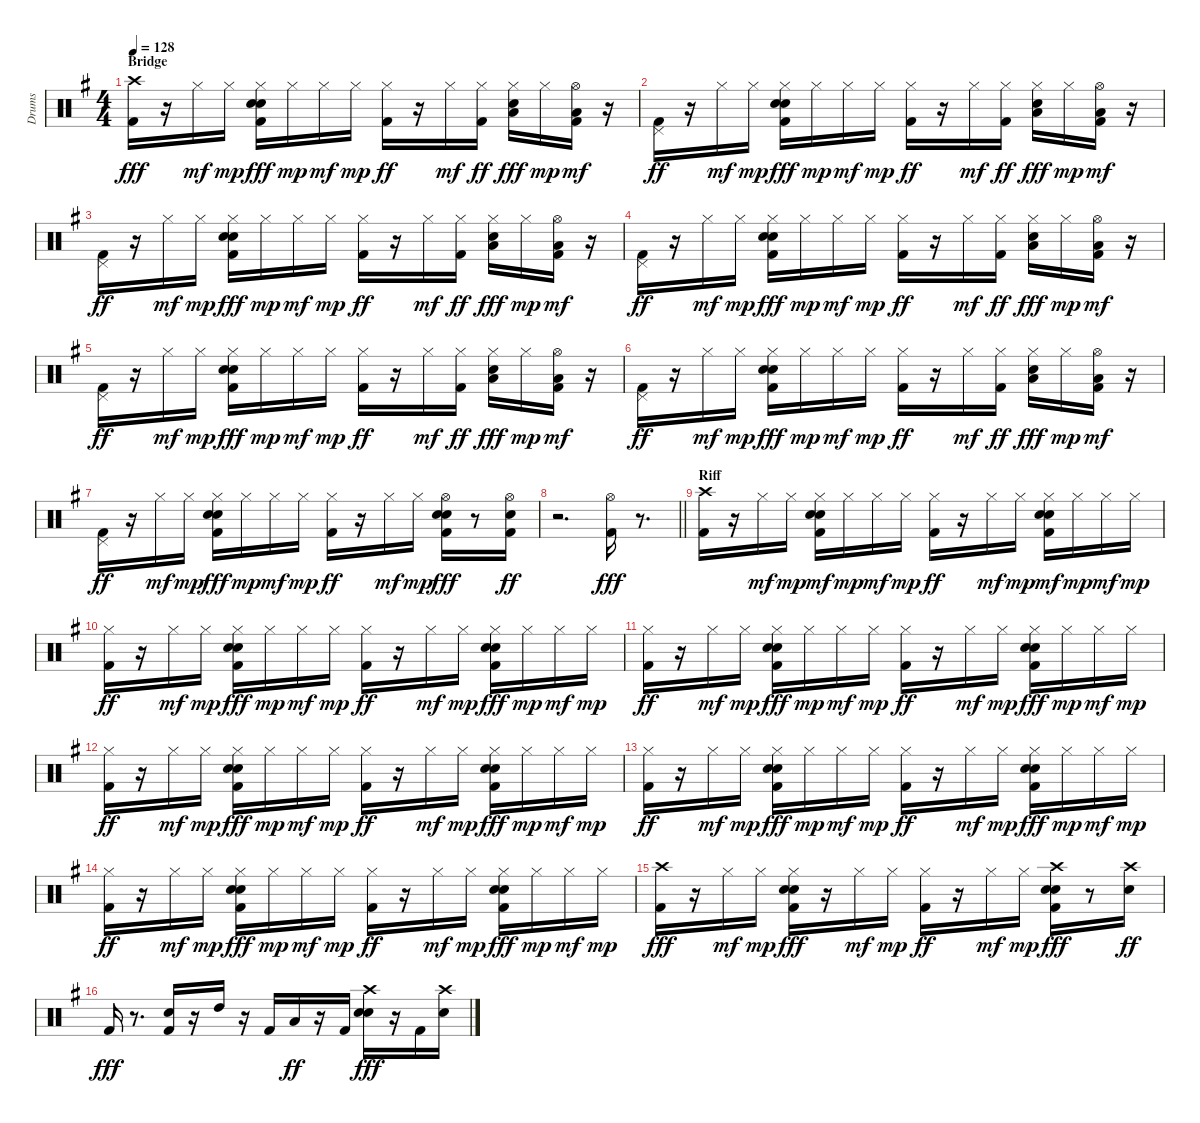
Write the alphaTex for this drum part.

\track ("Drums" "Drums") {instrument percussion}
\staff {score}
\articulation defaults
\ts (4 4)
\section ("" "Bridge")
\tempo 128
\clef neutral
\ks eminor
("Kick (hit) 2" "Crash high (hit)").16{dy fff} r.16 "Hi-Hat (closed)".16{dy mf} "Hi-Hat (closed)".16{dy mp} ("Hand Clap (hit)" "Kick (hit) 2" "Hi-Hat (closed)" "Electric Snare (hit)").16{dy fff} "Hi-Hat (closed)".16{dy mp} "Hi-Hat (closed)".16{dy mf} "Hi-Hat (closed)".16{dy mp} ("Kick (hit) 2" "Hi-Hat (closed)").16{dy ff} r.16 "Hi-Hat (closed)".16{dy mf} ("Hi-Hat (closed)" "Kick (hit) 2").16{dy ff} ("Hand Clap (hit)" "Hi-Hat (closed)" "Low Tom (hit)").16{dy fff} "Hi-Hat (closed)".16{dy mp} ("Kick (hit) 2" "Low Floor Tom (hit)" "Hi-Hat (open)").16{dy mf} r.16 |
("Kick (hit) 2" "Pedal Hi-Hat (hit)").16{dy ff} r.16 "Hi-Hat (closed)".16{dy mf} "Hi-Hat (closed)".16{dy mp} ("Hand Clap (hit)" "Kick (hit) 2" "Hi-Hat (closed)" "Electric Snare (hit)").16{dy fff} "Hi-Hat (closed)".16{dy mp} "Hi-Hat (closed)".16{dy mf} "Hi-Hat (closed)".16{dy mp} ("Kick (hit) 2" "Hi-Hat (closed)").16{dy ff} r.16 "Hi-Hat (closed)".16{dy mf} ("Hi-Hat (closed)" "Kick (hit) 2").16{dy ff} ("Hand Clap (hit)" "Hi-Hat (closed)" "Low Tom (hit)").16{dy fff} "Hi-Hat (closed)".16{dy mp} ("Kick (hit) 2" "Low Floor Tom (hit)" "Hi-Hat (open)").16{dy mf} r.16 |
("Kick (hit) 2" "Pedal Hi-Hat (hit)").16{dy ff} r.16 "Hi-Hat (closed)".16{dy mf} "Hi-Hat (closed)".16{dy mp} ("Hand Clap (hit)" "Kick (hit) 2" "Hi-Hat (closed)" "Electric Snare (hit)").16{dy fff} "Hi-Hat (closed)".16{dy mp} "Hi-Hat (closed)".16{dy mf} "Hi-Hat (closed)".16{dy mp} ("Kick (hit) 2" "Hi-Hat (closed)").16{dy ff} r.16 "Hi-Hat (closed)".16{dy mf} ("Hi-Hat (closed)" "Kick (hit) 2").16{dy ff} ("Hand Clap (hit)" "Hi-Hat (closed)" "Low Tom (hit)").16{dy fff} "Hi-Hat (closed)".16{dy mp} ("Kick (hit) 2" "Low Floor Tom (hit)" "Hi-Hat (open)").16{dy mf} r.16 |
("Kick (hit) 2" "Pedal Hi-Hat (hit)").16{dy ff} r.16 "Hi-Hat (closed)".16{dy mf} "Hi-Hat (closed)".16{dy mp} ("Hand Clap (hit)" "Kick (hit) 2" "Hi-Hat (closed)" "Electric Snare (hit)").16{dy fff} "Hi-Hat (closed)".16{dy mp} "Hi-Hat (closed)".16{dy mf} "Hi-Hat (closed)".16{dy mp} ("Kick (hit) 2" "Hi-Hat (closed)").16{dy ff} r.16 "Hi-Hat (closed)".16{dy mf} ("Hi-Hat (closed)" "Kick (hit) 2").16{dy ff} ("Hand Clap (hit)" "Hi-Hat (closed)" "Low Tom (hit)").16{dy fff} "Hi-Hat (closed)".16{dy mp} ("Kick (hit) 2" "Low Floor Tom (hit)" "Hi-Hat (open)").16{dy mf} r.16 |
("Kick (hit) 2" "Pedal Hi-Hat (hit)").16{dy ff} r.16 "Hi-Hat (closed)".16{dy mf} "Hi-Hat (closed)".16{dy mp} ("Hand Clap (hit)" "Kick (hit) 2" "Hi-Hat (closed)" "Electric Snare (hit)").16{dy fff} "Hi-Hat (closed)".16{dy mp} "Hi-Hat (closed)".16{dy mf} "Hi-Hat (closed)".16{dy mp} ("Kick (hit) 2" "Hi-Hat (closed)").16{dy ff} r.16 "Hi-Hat (closed)".16{dy mf} ("Hi-Hat (closed)" "Kick (hit) 2").16{dy ff} ("Hand Clap (hit)" "Hi-Hat (closed)" "Low Tom (hit)").16{dy fff} "Hi-Hat (closed)".16{dy mp} ("Kick (hit) 2" "Low Floor Tom (hit)" "Hi-Hat (open)").16{dy mf} r.16 |
("Kick (hit) 2" "Pedal Hi-Hat (hit)").16{dy ff} r.16 "Hi-Hat (closed)".16{dy mf} "Hi-Hat (closed)".16{dy mp} ("Hand Clap (hit)" "Kick (hit) 2" "Hi-Hat (closed)" "Electric Snare (hit)").16{dy fff} "Hi-Hat (closed)".16{dy mp} "Hi-Hat (closed)".16{dy mf} "Hi-Hat (closed)".16{dy mp} ("Kick (hit) 2" "Hi-Hat (closed)").16{dy ff} r.16 "Hi-Hat (closed)".16{dy mf} ("Hi-Hat (closed)" "Kick (hit) 2").16{dy ff} ("Hand Clap (hit)" "Hi-Hat (closed)" "Low Tom (hit)").16{dy fff} "Hi-Hat (closed)".16{dy mp} ("Kick (hit) 2" "Low Floor Tom (hit)" "Hi-Hat (open)").16{dy mf} r.16 |
("Kick (hit) 2" "Pedal Hi-Hat (hit)").16{dy ff} r.16 "Hi-Hat (closed)".16{dy mf} "Hi-Hat (closed)".16{dy mp} ("Hand Clap (hit)" "Kick (hit) 2" "Hi-Hat (closed)" "Electric Snare (hit)").16{dy fff} "Hi-Hat (closed)".16{dy mp} "Hi-Hat (closed)".16{dy mf} "Hi-Hat (closed)".16{dy mp} ("Kick (hit) 2" "Hi-Hat (closed)").16{dy ff} r.16 "Hi-Hat (closed)".16{dy mf} "Hi-Hat (closed)".16{dy mp} ("Hand Clap (hit)" "Kick (hit) 2" "Electric Snare (hit)" "Hi-Hat (open)").16{dy fff} r.8 ("Kick (hit) 2" "Electric Snare (hit)" "Hi-Hat (open)").16{dy ff} |
\barLineRight lightlight
r.2{d} ("Hi-Hat (open)" "Kick (hit) 2").16{dy fff} r.8{d} |
\section ("" "Riff")
("Crash high (hit)" "Kick (hit) 2").16 r.16 "Hi-Hat (closed)".16{dy mf} "Hi-Hat (closed)".16{dy mp} ("Hand Clap (hit)" "Electric Snare (hit)" "Kick (hit) 2" "Hi-Hat (closed)").16{dy mf} "Hi-Hat (closed)".16{dy mp} "Hi-Hat (closed)".16{dy mf} "Hi-Hat (closed)".16{dy mp} ("Kick (hit) 2" "Hi-Hat (closed)").16{dy ff} r.16 "Hi-Hat (closed)".16{dy mf} "Hi-Hat (closed)".16{dy mp} ("Hand Clap (hit)" "Kick (hit) 2" "Electric Snare (hit)" "Hi-Hat (closed)").16{dy mf} "Hi-Hat (closed)".16{dy mp} "Hi-Hat (closed)".16{dy mf} "Hi-Hat (closed)".16{dy mp} |
("Kick (hit) 2" "Hi-Hat (closed)").16{dy ff} r.16 "Hi-Hat (closed)".16{dy mf} "Hi-Hat (closed)".16{dy mp} ("Hand Clap (hit)" "Kick (hit) 2" "Hi-Hat (closed)" "Electric Snare (hit)").16{dy fff} "Hi-Hat (closed)".16{dy mp} "Hi-Hat (closed)".16{dy mf} "Hi-Hat (closed)".16{dy mp} ("Kick (hit) 2" "Hi-Hat (closed)").16{dy ff} r.16 "Hi-Hat (closed)".16{dy mf} "Hi-Hat (closed)".16{dy mp} ("Hand Clap (hit)" "Kick (hit) 2" "Hi-Hat (closed)" "Electric Snare (hit)").16{dy fff} "Hi-Hat (closed)".16{dy mp} "Hi-Hat (closed)".16{dy mf} "Hi-Hat (closed)".16{dy mp} |
("Kick (hit) 2" "Hi-Hat (closed)").16{dy ff} r.16 "Hi-Hat (closed)".16{dy mf} "Hi-Hat (closed)".16{dy mp} ("Hand Clap (hit)" "Kick (hit) 2" "Hi-Hat (closed)" "Electric Snare (hit)").16{dy fff} "Hi-Hat (closed)".16{dy mp} "Hi-Hat (closed)".16{dy mf} "Hi-Hat (closed)".16{dy mp} ("Kick (hit) 2" "Hi-Hat (closed)").16{dy ff} r.16 "Hi-Hat (closed)".16{dy mf} "Hi-Hat (closed)".16{dy mp} ("Hand Clap (hit)" "Kick (hit) 2" "Hi-Hat (closed)" "Electric Snare (hit)").16{dy fff} "Hi-Hat (closed)".16{dy mp} "Hi-Hat (closed)".16{dy mf} "Hi-Hat (closed)".16{dy mp} |
("Kick (hit) 2" "Hi-Hat (closed)").16{dy ff} r.16 "Hi-Hat (closed)".16{dy mf} "Hi-Hat (closed)".16{dy mp} ("Hand Clap (hit)" "Kick (hit) 2" "Hi-Hat (closed)" "Electric Snare (hit)").16{dy fff} "Hi-Hat (closed)".16{dy mp} "Hi-Hat (closed)".16{dy mf} "Hi-Hat (closed)".16{dy mp} ("Kick (hit) 2" "Hi-Hat (closed)").16{dy ff} r.16 "Hi-Hat (closed)".16{dy mf} "Hi-Hat (closed)".16{dy mp} ("Hand Clap (hit)" "Kick (hit) 2" "Hi-Hat (closed)" "Electric Snare (hit)").16{dy fff} "Hi-Hat (closed)".16{dy mp} "Hi-Hat (closed)".16{dy mf} "Hi-Hat (closed)".16{dy mp} |
("Kick (hit) 2" "Hi-Hat (closed)").16{dy ff} r.16 "Hi-Hat (closed)".16{dy mf} "Hi-Hat (closed)".16{dy mp} ("Hand Clap (hit)" "Kick (hit) 2" "Hi-Hat (closed)" "Electric Snare (hit)").16{dy fff} "Hi-Hat (closed)".16{dy mp} "Hi-Hat (closed)".16{dy mf} "Hi-Hat (closed)".16{dy mp} ("Kick (hit) 2" "Hi-Hat (closed)").16{dy ff} r.16 "Hi-Hat (closed)".16{dy mf} "Hi-Hat (closed)".16{dy mp} ("Hand Clap (hit)" "Kick (hit) 2" "Hi-Hat (closed)" "Electric Snare (hit)").16{dy fff} "Hi-Hat (closed)".16{dy mp} "Hi-Hat (closed)".16{dy mf} "Hi-Hat (closed)".16{dy mp} |
("Kick (hit) 2" "Hi-Hat (closed)").16{dy ff} r.16 "Hi-Hat (closed)".16{dy mf} "Hi-Hat (closed)".16{dy mp} ("Hand Clap (hit)" "Kick (hit) 2" "Hi-Hat (closed)" "Electric Snare (hit)").16{dy fff} "Hi-Hat (closed)".16{dy mp} "Hi-Hat (closed)".16{dy mf} "Hi-Hat (closed)".16{dy mp} ("Kick (hit) 2" "Hi-Hat (closed)").16{dy ff} r.16 "Hi-Hat (closed)".16{dy mf} "Hi-Hat (closed)".16{dy mp} ("Hand Clap (hit)" "Kick (hit) 2" "Hi-Hat (closed)" "Electric Snare (hit)").16{dy fff} "Hi-Hat (closed)".16{dy mp} "Hi-Hat (closed)".16{dy mf} "Hi-Hat (closed)".16{dy mp} |
("Kick (hit) 2" "Crash high (hit)").16{dy fff} r.16 "Hi-Hat (closed)".16{dy mf} "Hi-Hat (closed)".16{dy mp} ("Hand Clap (hit)" "Kick (hit) 2" "Hi-Hat (closed)" "Electric Snare (hit)").16{dy fff} r.16 "Hi-Hat (closed)".16{dy mf} "Hi-Hat (closed)".16{dy mp} ("Kick (hit) 2" "Hi-Hat (closed)").16{dy ff} r.16 "Hi-Hat (closed)".16{dy mf} "Hi-Hat (closed)".16{dy mp} ("Hand Clap (hit)" "Kick (hit) 2" "Electric Snare (hit)" "Crash high (hit)").16{dy fff} r.8 ("Crash high (hit)" "Electric Snare (hit)").16{dy ff} |
"Kick (hit) 2".16{dy fff} r.8{d} ("Hand Clap (hit)" "Kick (hit) 2").16 r.16 "High Tom (hit)".16 r.16 "Kick (hit) 2".16 "Low Tom (hit)".16{dy ff} r.16 "Kick (hit) 2".16 ("Hand Clap (hit)" "Electric Snare (hit)" "Crash high (hit)").16{dy fff} r.16 "Kick (hit) 2".16 ("Electric Snare (hit)" "Crash high (hit)").16
